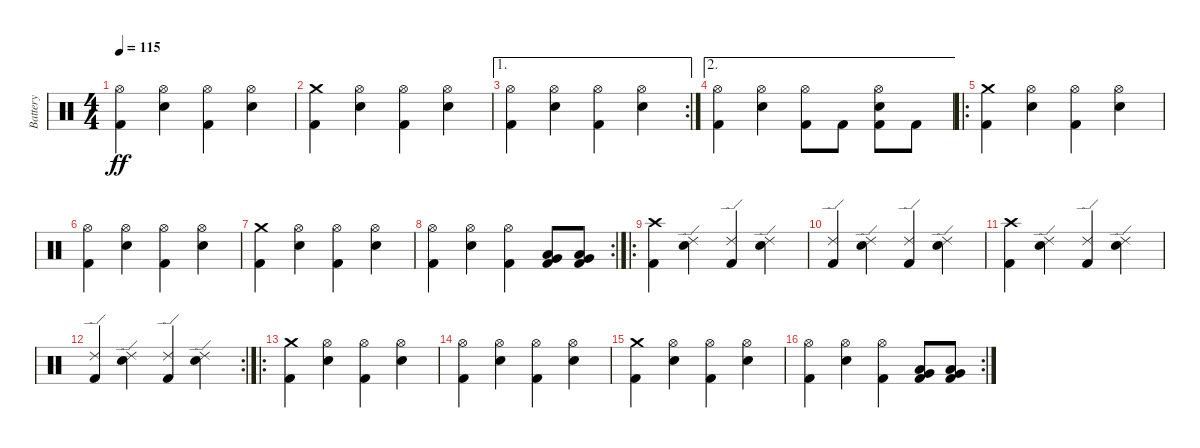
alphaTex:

\track ("Battery" "Battery") {instrument percussion}
\staff {score}
\articulation defaults
\ts (4 4)
\tempo 115
\clef neutral
\ks c
("Hi-Hat (open)" "Kick (hit) 2").4{dy ff} ("Hi-Hat (open)" "Snare (hit) 2").4 ("Hi-Hat (open)" "Kick (hit) 2").4 ("Hi-Hat (open)" "Snare (hit) 2").4 |
("Crash medium (hit)" "Kick (hit) 2").4 ("Hi-Hat (open)" "Snare (hit) 2").4 ("Hi-Hat (open)" "Kick (hit) 2").4 ("Hi-Hat (open)" "Snare (hit) 2").4 |
\ae 1
\rc 2
("Hi-Hat (open)" "Kick (hit) 2").4 ("Hi-Hat (open)" "Snare (hit) 2").4 ("Hi-Hat (open)" "Kick (hit) 2").4 ("Hi-Hat (open)" "Snare (hit) 2").4 |
\ae 2
("Hi-Hat (open)" "Kick (hit) 2").4 ("Hi-Hat (open)" "Snare (hit) 2").4 ("Hi-Hat (open)" "Kick (hit) 2").8 "Kick (hit) 2".8 ("Hi-Hat (open)" "Snare (hit) 2" "Kick (hit) 2").8 "Kick (hit) 2".8 |
\ro
("Crash medium (hit)" "Kick (hit) 2").4 ("Hi-Hat (open)" "Snare (hit) 2").4 ("Hi-Hat (open)" "Kick (hit) 2").4 ("Hi-Hat (open)" "Snare (hit) 2").4 |
("Hi-Hat (open)" "Kick (hit) 2").4 ("Hi-Hat (open)" "Snare (hit) 2").4 ("Hi-Hat (open)" "Kick (hit) 2").4 ("Hi-Hat (open)" "Snare (hit) 2").4 |
("Crash medium (hit)" "Kick (hit) 2").4 ("Hi-Hat (open)" "Snare (hit) 2").4 ("Hi-Hat (open)" "Kick (hit) 2").4 ("Hi-Hat (open)" "Snare (hit) 2").4 |
\rc 2
("Hi-Hat (open)" "Kick (hit) 2").4 ("Hi-Hat (open)" "Snare (hit) 2").4 ("Hi-Hat (open)" "Kick (hit) 2").4 ("Low Tom (hit)" "Very Low Tom (hit)" "Kick (hit) 2").8 ("Low Tom (hit)" "Very Low Tom (hit)" "Kick (hit) 2").8 |
\ro
("Crash high (hit)" "Kick (hit) 2").4 ("Ride (edge) 2" "Snare (hit) 2").4 ("Ride (edge) 2" "Kick (hit) 2").4 ("Ride (edge) 2" "Snare (hit) 2").4 |
("Ride (edge) 2" "Kick (hit) 2").4 ("Ride (edge) 2" "Snare (hit) 2").4 ("Ride (edge) 2" "Kick (hit) 2").4 ("Ride (edge) 2" "Snare (hit) 2").4 |
("Crash high (hit)" "Kick (hit) 2").4 ("Ride (edge) 2" "Snare (hit) 2").4 ("Ride (edge) 2" "Kick (hit) 2").4 ("Ride (edge) 2" "Snare (hit) 2").4 |
\rc 2
("Ride (edge) 2" "Kick (hit) 2").4 ("Ride (edge) 2" "Snare (hit) 2").4 ("Ride (edge) 2" "Kick (hit) 2").4 ("Ride (edge) 2" "Snare (hit) 2").4 |
\ro
("Crash medium (hit)" "Kick (hit) 2").4 ("Hi-Hat (open)" "Snare (hit) 2").4 ("Hi-Hat (open)" "Kick (hit) 2").4 ("Hi-Hat (open)" "Snare (hit) 2").4 |
("Hi-Hat (open)" "Kick (hit) 2").4 ("Hi-Hat (open)" "Snare (hit) 2").4 ("Hi-Hat (open)" "Kick (hit) 2").4 ("Hi-Hat (open)" "Snare (hit) 2").4 |
("Crash medium (hit)" "Kick (hit) 2").4 ("Hi-Hat (open)" "Snare (hit) 2").4 ("Hi-Hat (open)" "Kick (hit) 2").4 ("Hi-Hat (open)" "Snare (hit) 2").4 |
\rc 2
("Hi-Hat (open)" "Kick (hit) 2").4 ("Hi-Hat (open)" "Snare (hit) 2").4 ("Hi-Hat (open)" "Kick (hit) 2").4 ("Low Tom (hit)" "Very Low Tom (hit)" "Kick (hit) 2").8 ("Low Tom (hit)" "Very Low Tom (hit)" "Kick (hit) 2").8
